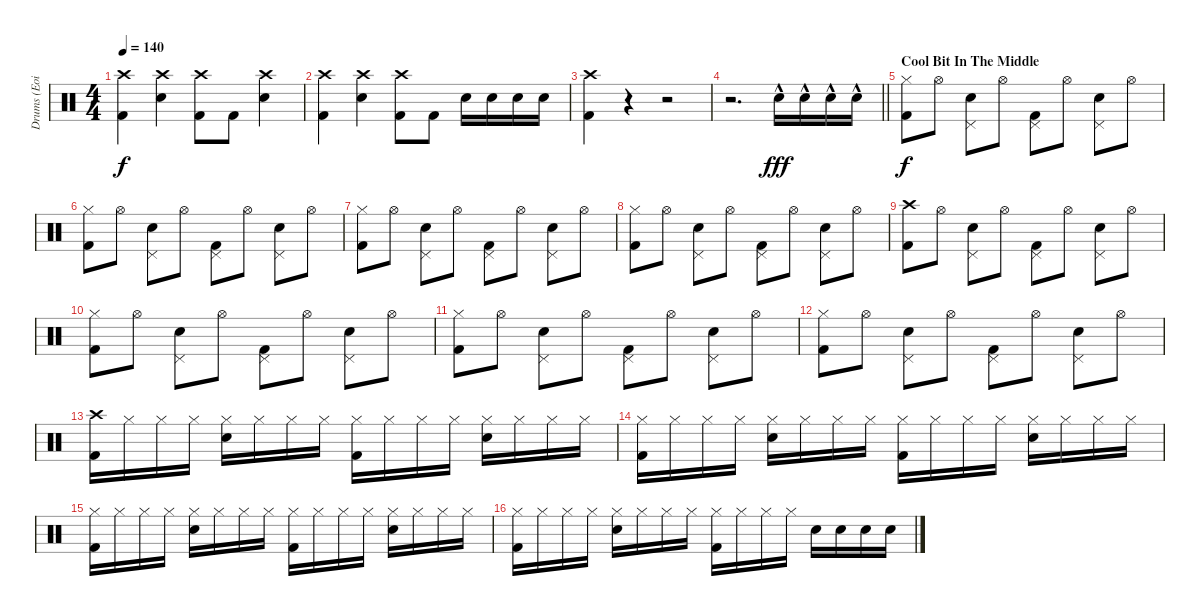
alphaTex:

\track ("Drums (Eoin)" "Drums (Eoi") {instrument percussion}
\staff {score}
\articulation defaults
\ts (4 4)
\tempo 140
\clef neutral
\ks c
("Crash high (hit)" "Kick (hit) 2").4{dy f} ("Crash high (hit)" "Electric Snare (hit)").4 ("Crash high (hit)" "Kick (hit) 2").8 "Kick (hit) 2".8 ("Crash high (hit)" "Electric Snare (hit)").4 |
("Crash high (hit)" "Kick (hit) 2").4 ("Crash high (hit)" "Electric Snare (hit)").4 ("Crash high (hit)" "Kick (hit) 2").8 "Kick (hit) 2".8 "Electric Snare (hit)".16 "Electric Snare (hit)".16 "Electric Snare (hit)".16 "Electric Snare (hit)".16 |
("Crash high (hit)" "Kick (hit) 2").4 r.4 r.2 |
\barLineRight lightlight
r.2{d} "Electric Snare (hit)"{hac}.16{dy fff} "Electric Snare (hit)"{hac}.16 "Electric Snare (hit)"{hac}.16 "Electric Snare (hit)"{hac}.16 |
\section ("" "Cool Bit In The Middle")
("Hi-Hat (closed)" "Kick (hit) 2").8{dy f} "Hi-Hat (open)".8 ("Pedal Hi-Hat (hit)" "Electric Snare (hit)").8 "Hi-Hat (open)".8 ("Pedal Hi-Hat (hit)" "Kick (hit) 2").8 "Hi-Hat (open)".8 ("Pedal Hi-Hat (hit)" "Electric Snare (hit)").8 "Hi-Hat (open)".8 |
("Hi-Hat (closed)" "Kick (hit) 2").8 "Hi-Hat (open)".8 ("Pedal Hi-Hat (hit)" "Electric Snare (hit)").8 "Hi-Hat (open)".8 ("Pedal Hi-Hat (hit)" "Kick (hit) 2").8 "Hi-Hat (open)".8 ("Pedal Hi-Hat (hit)" "Electric Snare (hit)").8 "Hi-Hat (open)".8 |
("Hi-Hat (closed)" "Kick (hit) 2").8 "Hi-Hat (open)".8 ("Pedal Hi-Hat (hit)" "Electric Snare (hit)").8 "Hi-Hat (open)".8 ("Pedal Hi-Hat (hit)" "Kick (hit) 2").8 "Hi-Hat (open)".8 ("Pedal Hi-Hat (hit)" "Electric Snare (hit)").8 "Hi-Hat (open)".8 |
("Hi-Hat (closed)" "Kick (hit) 2").8 "Hi-Hat (open)".8 ("Pedal Hi-Hat (hit)" "Electric Snare (hit)").8 "Hi-Hat (open)".8 ("Pedal Hi-Hat (hit)" "Kick (hit) 2").8 "Hi-Hat (open)".8 ("Pedal Hi-Hat (hit)" "Electric Snare (hit)").8 "Hi-Hat (open)".8 |
("Crash high (hit)" "Kick (hit) 2").8 "Hi-Hat (open)".8 ("Pedal Hi-Hat (hit)" "Electric Snare (hit)").8 "Hi-Hat (open)".8 ("Pedal Hi-Hat (hit)" "Kick (hit) 2").8 "Hi-Hat (open)".8 ("Pedal Hi-Hat (hit)" "Electric Snare (hit)").8 "Hi-Hat (open)".8 |
("Hi-Hat (closed)" "Kick (hit) 2").8 "Hi-Hat (open)".8 ("Pedal Hi-Hat (hit)" "Electric Snare (hit)").8 "Hi-Hat (open)".8 ("Pedal Hi-Hat (hit)" "Kick (hit) 2").8 "Hi-Hat (open)".8 ("Pedal Hi-Hat (hit)" "Electric Snare (hit)").8 "Hi-Hat (open)".8 |
("Hi-Hat (closed)" "Kick (hit) 2").8 "Hi-Hat (open)".8 ("Pedal Hi-Hat (hit)" "Electric Snare (hit)").8 "Hi-Hat (open)".8 ("Pedal Hi-Hat (hit)" "Kick (hit) 2").8 "Hi-Hat (open)".8 ("Pedal Hi-Hat (hit)" "Electric Snare (hit)").8 "Hi-Hat (open)".8 |
("Hi-Hat (closed)" "Kick (hit) 2").8 "Hi-Hat (open)".8 ("Pedal Hi-Hat (hit)" "Electric Snare (hit)").8 "Hi-Hat (open)".8 ("Pedal Hi-Hat (hit)" "Kick (hit) 2").8 "Hi-Hat (open)".8 ("Pedal Hi-Hat (hit)" "Electric Snare (hit)").8 "Hi-Hat (open)".8 |
("Crash high (hit)" "Kick (hit) 2").16 "Hi-Hat (closed)".16 "Hi-Hat (closed)".16 "Hi-Hat (closed)".16 ("Hi-Hat (closed)" "Electric Snare (hit)").16 "Hi-Hat (closed)".16 "Hi-Hat (closed)".16 "Hi-Hat (closed)".16 ("Hi-Hat (closed)" "Kick (hit) 2").16 "Hi-Hat (closed)".16 "Hi-Hat (closed)".16 "Hi-Hat (closed)".16 ("Hi-Hat (closed)" "Electric Snare (hit)").16 "Hi-Hat (closed)".16 "Hi-Hat (closed)".16 "Hi-Hat (closed)".16 |
("Hi-Hat (closed)" "Kick (hit) 2").16 "Hi-Hat (closed)".16 "Hi-Hat (closed)".16 "Hi-Hat (closed)".16 ("Hi-Hat (closed)" "Electric Snare (hit)").16 "Hi-Hat (closed)".16 "Hi-Hat (closed)".16 "Hi-Hat (closed)".16 ("Hi-Hat (closed)" "Kick (hit) 2").16 "Hi-Hat (closed)".16 "Hi-Hat (closed)".16 "Hi-Hat (closed)".16 ("Hi-Hat (closed)" "Electric Snare (hit)").16 "Hi-Hat (closed)".16 "Hi-Hat (closed)".16 "Hi-Hat (closed)".16 |
("Hi-Hat (closed)" "Kick (hit) 2").16 "Hi-Hat (closed)".16 "Hi-Hat (closed)".16 "Hi-Hat (closed)".16 ("Hi-Hat (closed)" "Electric Snare (hit)").16 "Hi-Hat (closed)".16 "Hi-Hat (closed)".16 "Hi-Hat (closed)".16 ("Hi-Hat (closed)" "Kick (hit) 2").16 "Hi-Hat (closed)".16 "Hi-Hat (closed)".16 "Hi-Hat (closed)".16 ("Hi-Hat (closed)" "Electric Snare (hit)").16 "Hi-Hat (closed)".16 "Hi-Hat (closed)".16 "Hi-Hat (closed)".16 |
("Hi-Hat (closed)" "Kick (hit) 2").16 "Hi-Hat (closed)".16 "Hi-Hat (closed)".16 "Hi-Hat (closed)".16 ("Hi-Hat (closed)" "Electric Snare (hit)").16 "Hi-Hat (closed)".16 "Hi-Hat (closed)".16 "Hi-Hat (closed)".16 ("Hi-Hat (closed)" "Kick (hit) 2").16 "Hi-Hat (closed)".16 "Hi-Hat (closed)".16 "Hi-Hat (closed)".16 "Electric Snare (hit)".16 "Electric Snare (hit)".16 "Electric Snare (hit)".16 "Electric Snare (hit)".16
